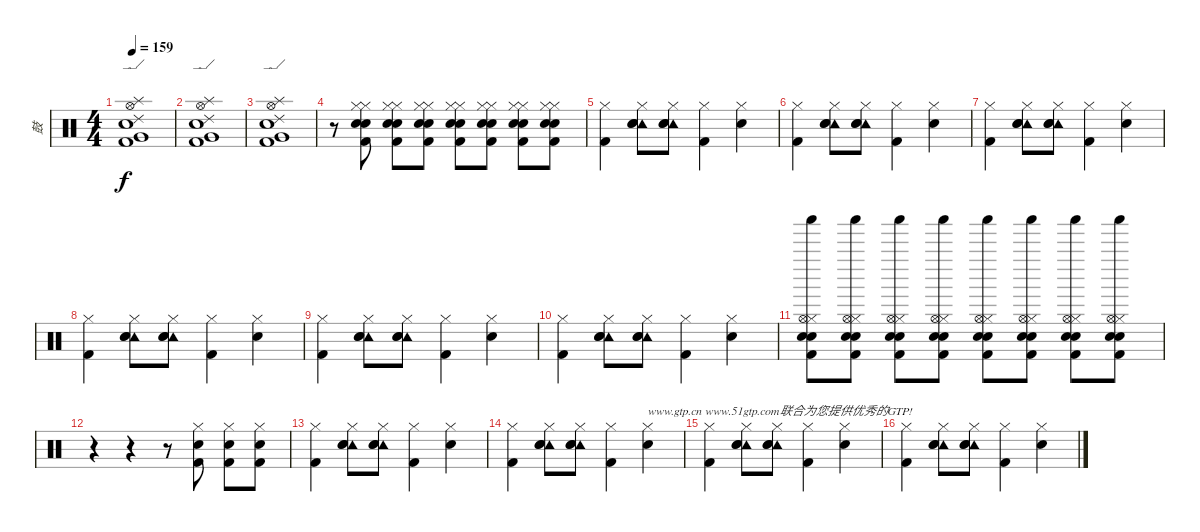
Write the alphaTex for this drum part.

\track ("鼓" "鼓") {instrument percussion}
\staff {score}
\articulation defaults
\ts (4 4)
\tempo 159
\clef neutral
\ks c
("Kick (hit) 2" "Hi-Hat (open)" "Snare (hit) 2" "Splash (hit)" "Ride (edge) 2" "Very Low Tom (hit)").1{dy f} |
("Kick (hit) 2" "Hi-Hat (open)" "Snare (hit) 2" "Splash (hit)" "Ride (edge) 2" "Very Low Tom (hit)").1 |
("Kick (hit) 2" "Hi-Hat (open)" "Snare (hit) 2" "Splash (hit)" "Ride (edge) 2" "Very Low Tom (hit)").1 |
r.8 ("Kick (hit) 2" "Snare (hit) 2" "Electric Snare (hit)" "Hi-Hat (closed)" "Hi-Hat (closed)").8 ("Kick (hit) 2" "Snare (hit) 2" "Electric Snare (hit)" "Hi-Hat (closed)" "Hi-Hat (closed)").8 ("Kick (hit) 2" "Snare (hit) 2" "Electric Snare (hit)" "Hi-Hat (closed)" "Hi-Hat (closed)").8 ("Kick (hit) 2" "Snare (hit) 2" "Electric Snare (hit)" "Hi-Hat (closed)" "Hi-Hat (closed)").8 ("Kick (hit) 2" "Snare (hit) 2" "Electric Snare (hit)" "Hi-Hat (closed)" "Hi-Hat (closed)").8 ("Kick (hit) 2" "Snare (hit) 2" "Electric Snare (hit)" "Hi-Hat (closed)" "Hi-Hat (closed)").8 ("Kick (hit) 2" "Snare (hit) 2" "Electric Snare (hit)" "Hi-Hat (closed)" "Hi-Hat (closed)").8 |
("Hi-Hat (closed)" "Kick (hit) 2").4 ("Hi-Hat (closed)" "Tambourine (hit)" "Snare (hit) 2" "Metronome (bell)").8 ("Hi-Hat (closed)" "Tambourine (hit)" "Snare (hit) 2" "Metronome (bell)").8 ("Hi-Hat (closed)" "Kick (hit) 2").4 ("Hi-Hat (closed)" "Snare (hit) 2").4 |
("Hi-Hat (closed)" "Kick (hit) 2").4 ("Hi-Hat (closed)" "Tambourine (hit)" "Snare (hit) 2" "Metronome (bell)").8 ("Hi-Hat (closed)" "Tambourine (hit)" "Snare (hit) 2" "Metronome (bell)").8 ("Hi-Hat (closed)" "Kick (hit) 2").4 ("Hi-Hat (closed)" "Snare (hit) 2").4 |
("Hi-Hat (closed)" "Kick (hit) 2").4 ("Hi-Hat (closed)" "Tambourine (hit)" "Snare (hit) 2" "Metronome (bell)").8 ("Hi-Hat (closed)" "Tambourine (hit)" "Snare (hit) 2" "Metronome (bell)").8 ("Hi-Hat (closed)" "Kick (hit) 2").4 ("Hi-Hat (closed)" "Snare (hit) 2").4 |
("Hi-Hat (closed)" "Kick (hit) 2").4 ("Hi-Hat (closed)" "Tambourine (hit)" "Snare (hit) 2" "Metronome (bell)").8 ("Hi-Hat (closed)" "Tambourine (hit)" "Snare (hit) 2" "Metronome (bell)").8 ("Hi-Hat (closed)" "Kick (hit) 2").4 ("Hi-Hat (closed)" "Snare (hit) 2").4 |
("Hi-Hat (closed)" "Kick (hit) 2").4 ("Hi-Hat (closed)" "Tambourine (hit)" "Snare (hit) 2" "Metronome (bell)").8 ("Hi-Hat (closed)" "Tambourine (hit)" "Snare (hit) 2" "Metronome (bell)").8 ("Hi-Hat (closed)" "Kick (hit) 2").4 ("Hi-Hat (closed)" "Snare (hit) 2").4 |
("Hi-Hat (closed)" "Kick (hit) 2").4 ("Hi-Hat (closed)" "Tambourine (hit)" "Snare (hit) 2" "Metronome (bell)").8 ("Hi-Hat (closed)" "Tambourine (hit)" "Snare (hit) 2" "Metronome (bell)").8 ("Hi-Hat (closed)" "Kick (hit) 2").4 ("Hi-Hat (closed)" "Snare (hit) 2").4 |
("Hi-Hat (closed)" "Snare (hit) 2" "Shaker (hit)" "Electric Snare (hit)" "Hi-Hat (open)" "Kick (hit) 2").8 ("Hi-Hat (closed)" "Snare (hit) 2" "Shaker (hit)" "Electric Snare (hit)" "Hi-Hat (open)" "Kick (hit) 2").8 ("Hi-Hat (closed)" "Snare (hit) 2" "Shaker (hit)" "Electric Snare (hit)" "Hi-Hat (open)" "Kick (hit) 2").8 ("Hi-Hat (closed)" "Snare (hit) 2" "Shaker (hit)" "Electric Snare (hit)" "Hi-Hat (open)" "Kick (hit) 2").8 ("Hi-Hat (closed)" "Snare (hit) 2" "Shaker (hit)" "Electric Snare (hit)" "Hi-Hat (open)" "Kick (hit) 2").8 ("Hi-Hat (closed)" "Snare (hit) 2" "Shaker (hit)" "Electric Snare (hit)" "Hi-Hat (open)" "Kick (hit) 2").8 ("Hi-Hat (closed)" "Snare (hit) 2" "Shaker (hit)" "Electric Snare (hit)" "Hi-Hat (open)" "Kick (hit) 2").8 ("Hi-Hat (closed)" "Snare (hit) 2" "Shaker (hit)" "Electric Snare (hit)" "Hi-Hat (open)" "Kick (hit) 2").8 |
r.4 r.4 r.8 ("Hi-Hat (closed)" "Snare (hit) 2" "Kick (hit) 2").8 ("Hi-Hat (closed)" "Snare (hit) 2" "Kick (hit) 2").8 ("Hi-Hat (closed)" "Snare (hit) 2" "Kick (hit) 2").8 |
("Hi-Hat (closed)" "Kick (hit) 2").4 ("Hi-Hat (closed)" "Tambourine (hit)" "Snare (hit) 2" "Metronome (bell)").8 ("Hi-Hat (closed)" "Tambourine (hit)" "Snare (hit) 2" "Metronome (bell)").8 ("Hi-Hat (closed)" "Kick (hit) 2").4 ("Hi-Hat (closed)" "Snare (hit) 2").4 |
("Hi-Hat (closed)" "Kick (hit) 2").4 ("Hi-Hat (closed)" "Tambourine (hit)" "Snare (hit) 2" "Metronome (bell)").8 ("Hi-Hat (closed)" "Tambourine (hit)" "Snare (hit) 2" "Metronome (bell)").8 ("Hi-Hat (closed)" "Kick (hit) 2").4 ("Hi-Hat (closed)" "Snare (hit) 2").4{txt "www.gtp.cn www.51gtp.com联合为您提供优秀的GTP!"} |
("Hi-Hat (closed)" "Kick (hit) 2").4 ("Hi-Hat (closed)" "Tambourine (hit)" "Snare (hit) 2" "Metronome (bell)").8 ("Hi-Hat (closed)" "Tambourine (hit)" "Snare (hit) 2" "Metronome (bell)").8 ("Hi-Hat (closed)" "Kick (hit) 2").4 ("Hi-Hat (closed)" "Snare (hit) 2").4 |
("Hi-Hat (closed)" "Kick (hit) 2").4 ("Hi-Hat (closed)" "Tambourine (hit)" "Snare (hit) 2" "Metronome (bell)").8 ("Hi-Hat (closed)" "Tambourine (hit)" "Snare (hit) 2" "Metronome (bell)").8 ("Hi-Hat (closed)" "Kick (hit) 2").4 ("Hi-Hat (closed)" "Snare (hit) 2").4
